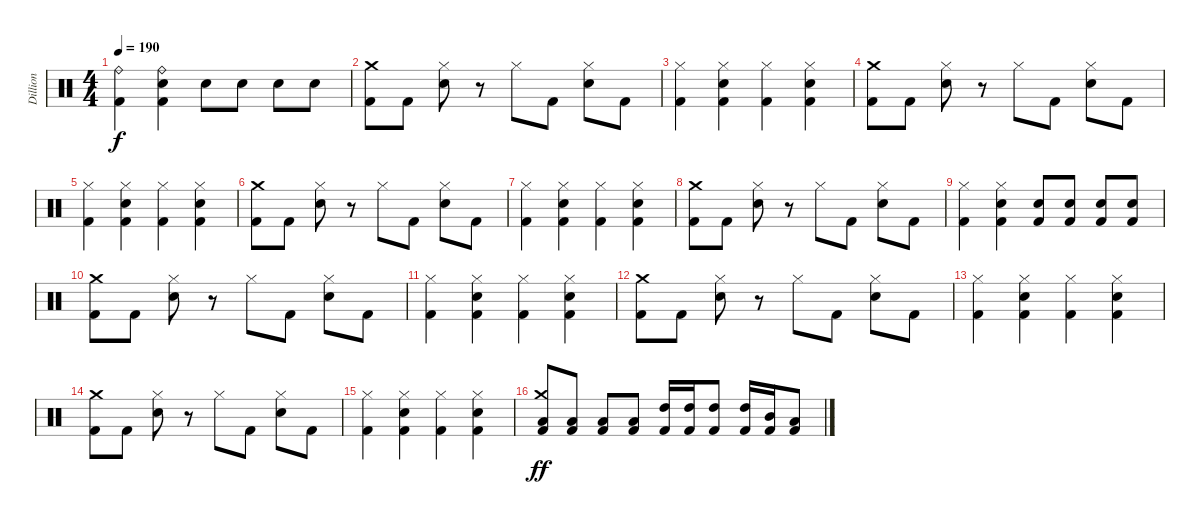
\track ("Dillion" "Dillion") {instrument percussion}
\staff {score}
\articulation defaults
\ts (4 4)
\tempo 190
\clef neutral
\ks c
("Ride (bell)" "Kick (hit) 2").4{dy f} ("Ride (bell)" "Electric Snare (hit)" "Kick (hit) 2").4 "Electric Snare (hit)".8 "Electric Snare (hit)".8 "Electric Snare (hit)".8 "Electric Snare (hit)".8 |
("Crash medium (hit)" "Kick (hit) 2").8 "Kick (hit) 2".8 ("Hi-Hat (closed)" "Electric Snare (hit)").8 r.8 "Hi-Hat (closed)".8 "Kick (hit) 2".8 ("Hi-Hat (closed)" "Electric Snare (hit)").8 "Kick (hit) 2".8 |
("Hi-Hat (closed)" "Kick (hit) 2").4 ("Hi-Hat (closed)" "Electric Snare (hit)" "Kick (hit) 2").4 ("Hi-Hat (closed)" "Kick (hit) 2").4 ("Hi-Hat (closed)" "Electric Snare (hit)" "Kick (hit) 2").4 |
("Crash medium (hit)" "Kick (hit) 2").8 "Kick (hit) 2".8 ("Hi-Hat (closed)" "Electric Snare (hit)").8 r.8 "Hi-Hat (closed)".8 "Kick (hit) 2".8 ("Hi-Hat (closed)" "Electric Snare (hit)").8 "Kick (hit) 2".8 |
("Hi-Hat (closed)" "Kick (hit) 2").4 ("Hi-Hat (closed)" "Electric Snare (hit)" "Kick (hit) 2").4 ("Hi-Hat (closed)" "Kick (hit) 2").4 ("Hi-Hat (closed)" "Electric Snare (hit)" "Kick (hit) 2").4 |
("Crash medium (hit)" "Kick (hit) 2").8 "Kick (hit) 2".8 ("Hi-Hat (closed)" "Electric Snare (hit)").8 r.8 "Hi-Hat (closed)".8 "Kick (hit) 2".8 ("Hi-Hat (closed)" "Electric Snare (hit)").8 "Kick (hit) 2".8 |
("Hi-Hat (closed)" "Kick (hit) 2").4 ("Hi-Hat (closed)" "Electric Snare (hit)" "Kick (hit) 2").4 ("Hi-Hat (closed)" "Kick (hit) 2").4 ("Hi-Hat (closed)" "Electric Snare (hit)" "Kick (hit) 2").4 |
("Crash medium (hit)" "Kick (hit) 2").8 "Kick (hit) 2".8 ("Hi-Hat (closed)" "Electric Snare (hit)").8 r.8 "Hi-Hat (closed)".8 "Kick (hit) 2".8 ("Hi-Hat (closed)" "Electric Snare (hit)").8 "Kick (hit) 2".8 |
("Hi-Hat (closed)" "Kick (hit) 2").4 ("Hi-Hat (closed)" "Electric Snare (hit)" "Kick (hit) 2").4 ("Electric Snare (hit)" "Kick (hit) 2").8 ("Electric Snare (hit)" "Kick (hit) 2").8 ("Electric Snare (hit)" "Kick (hit) 2").8 ("Electric Snare (hit)" "Kick (hit) 2").8 |
("Crash medium (hit)" "Kick (hit) 2").8 "Kick (hit) 2".8 ("Hi-Hat (closed)" "Electric Snare (hit)").8 r.8 "Hi-Hat (closed)".8 "Kick (hit) 2".8 ("Hi-Hat (closed)" "Electric Snare (hit)").8 "Kick (hit) 2".8 |
("Hi-Hat (closed)" "Kick (hit) 2").4 ("Hi-Hat (closed)" "Electric Snare (hit)" "Kick (hit) 2").4 ("Hi-Hat (closed)" "Kick (hit) 2").4 ("Hi-Hat (closed)" "Electric Snare (hit)" "Kick (hit) 2").4 |
("Crash medium (hit)" "Kick (hit) 2").8 "Kick (hit) 2".8 ("Hi-Hat (closed)" "Electric Snare (hit)").8 r.8 "Hi-Hat (closed)".8 "Kick (hit) 2".8 ("Hi-Hat (closed)" "Electric Snare (hit)").8 "Kick (hit) 2".8 |
("Hi-Hat (closed)" "Kick (hit) 2").4 ("Hi-Hat (closed)" "Electric Snare (hit)" "Kick (hit) 2").4 ("Hi-Hat (closed)" "Kick (hit) 2").4 ("Hi-Hat (closed)" "Electric Snare (hit)" "Kick (hit) 2").4 |
("Crash medium (hit)" "Kick (hit) 2").8 "Kick (hit) 2".8 ("Hi-Hat (closed)" "Electric Snare (hit)").8 r.8 "Hi-Hat (closed)".8 "Kick (hit) 2".8 ("Hi-Hat (closed)" "Electric Snare (hit)").8 "Kick (hit) 2".8 |
("Hi-Hat (closed)" "Kick (hit) 2").4 ("Hi-Hat (closed)" "Electric Snare (hit)" "Kick (hit) 2").4 ("Hi-Hat (closed)" "Kick (hit) 2").4 ("Hi-Hat (closed)" "Electric Snare (hit)" "Kick (hit) 2").4 |
("Crash medium (hit)" "Low Tom (hit)" "Kick (hit) 2").8{dy ff} ("Low Tom (hit)" "Kick (hit) 2").8 ("Low Tom (hit)" "Kick (hit) 2").8 ("Low Tom (hit)" "Kick (hit) 2").8 ("High Tom (hit)" "Kick (hit) 2").16 ("High Tom (hit)" "Kick (hit) 2").16 ("High Tom (hit)" "Kick (hit) 2").8 ("High Tom (hit)" "Kick (hit) 2").16 ("Mid Tom (hit)" "Kick (hit) 2").16 ("Low Tom (hit)" "Kick (hit) 2").8
